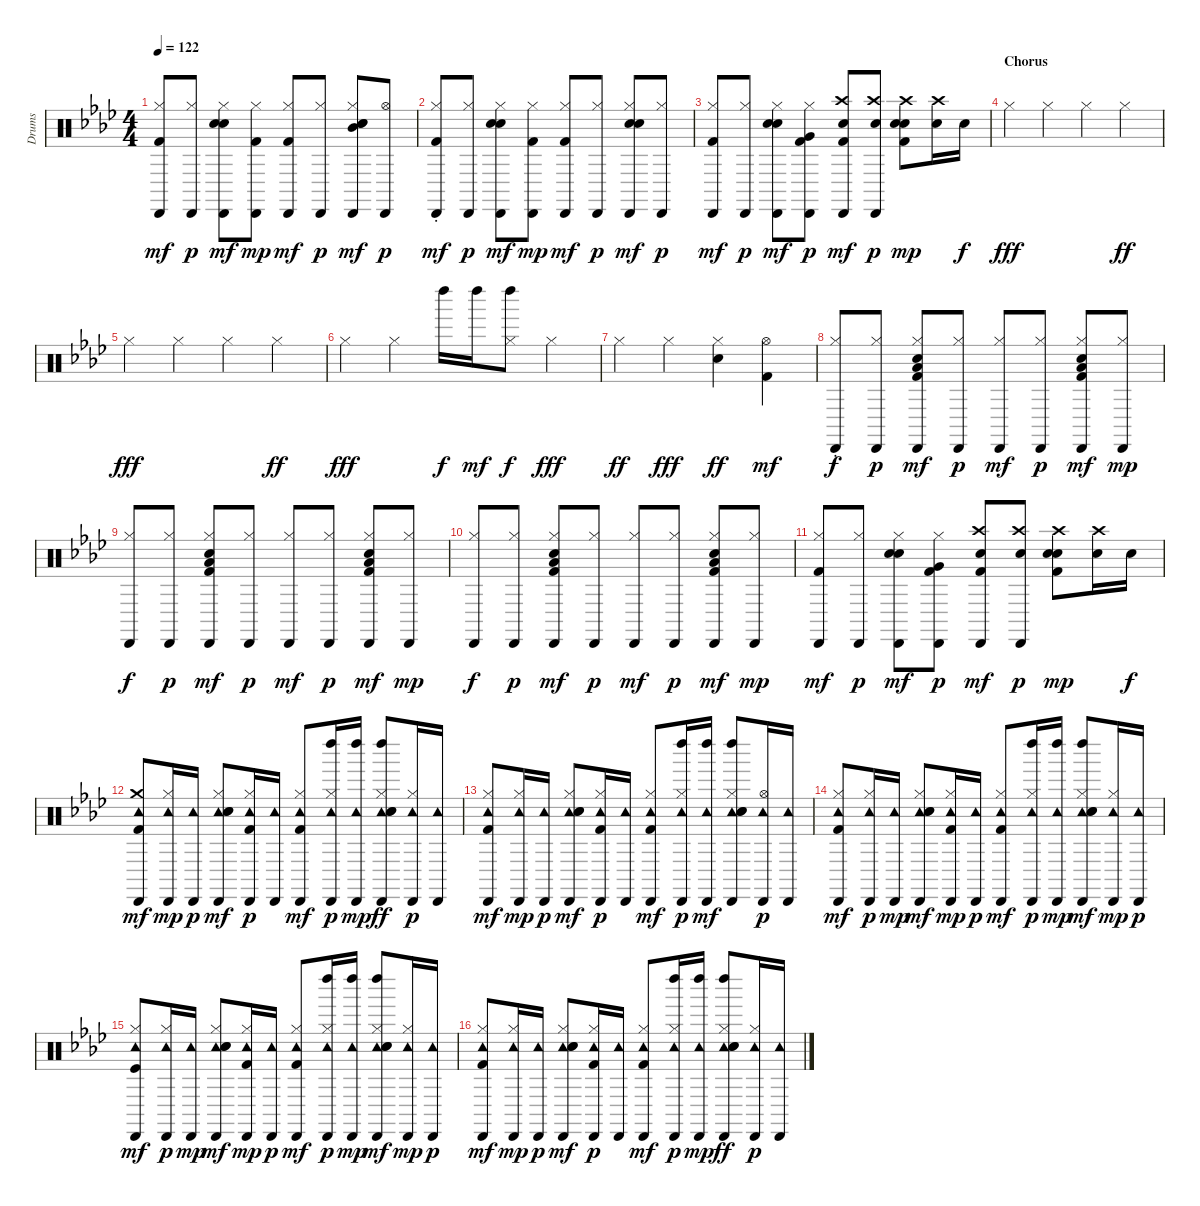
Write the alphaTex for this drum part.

\track ("Drums" "Drums") {instrument percussion}
\staff {score}
\articulation defaults
\ts (4 4)
\tempo 122
\clef neutral
\ks ab
("Hi-Hat (closed)" "Cabasa (hit)" "Kick (hit) 2").8{dy mf} ("Hi-Hat (closed)" "Cabasa (hit)").8{dy p} ("Hi-Hat (closed)" "Cabasa (hit)" "Hand Clap (hit)" "Electric Snare (hit)").8{dy mf} ("Hi-Hat (closed)" "Cabasa (hit)" "Kick (hit) 2").8{dy mp} ("Hi-Hat (closed)" "Cabasa (hit)" "Kick (hit) 2").8{dy mf} ("Hi-Hat (closed)" "Cabasa (hit)").8{dy p} ("Hi-Hat (closed)" "Cabasa (hit)" "Hand Clap (hit)" "Mid Tom (hit)" "Electric Snare (hit)").8{dy mf} ("Hi-Hat (open)" "Cabasa (hit)").8{dy p} |
("Hi-Hat (closed)"{st} "Cabasa (hit)" "Kick (hit) 2").8{dy mf} ("Hi-Hat (closed)" "Cabasa (hit)").8{dy p} ("Hi-Hat (closed)" "Cabasa (hit)" "Hand Clap (hit)" "Electric Snare (hit)").8{dy mf} ("Hi-Hat (closed)" "Cabasa (hit)" "Kick (hit) 2").8{dy mp} ("Hi-Hat (closed)" "Cabasa (hit)" "Kick (hit) 2").8{dy mf} ("Hi-Hat (closed)" "Cabasa (hit)").8{dy p} ("Hi-Hat (closed)" "Cabasa (hit)" "Hand Clap (hit)" "Electric Snare (hit)").8{dy mf} ("Hi-Hat (closed)" "Cabasa (hit)").8{dy p} |
("Hi-Hat (closed)" "Cabasa (hit)" "Kick (hit) 2").8{dy mf} ("Hi-Hat (closed)" "Cabasa (hit)").8{dy p} ("Hi-Hat (closed)" "Cabasa (hit)" "Hand Clap (hit)" "Electric Snare (hit)").8{dy mf} ("Hi-Hat (closed)" "Cabasa (hit)" "Very Low Tom (hit)" "Kick (hit) 2").8{dy p} ("Crash high (hit)" "Cabasa (hit)" "Electric Snare (hit)" "Kick (hit) 2").8{dy mf} ("Crash high (hit)" "Cabasa (hit)" "Electric Snare (hit)").8{dy p} ("Crash high (hit)" "Hand Clap (hit)" "Electric Snare (hit)" "Kick (hit) 2").8{dy mp} ("Crash high (hit)" "Electric Snare (hit)").16 "Electric Snare (hit)".16{dy f} |
\section ("" "Chorus")
"Hi-Hat (closed)".4{dy fff} "Hi-Hat (closed)".4 "Hi-Hat (closed)".4 "Hi-Hat (closed)".4{dy ff} |
"Hi-Hat (closed)".4{dy fff} "Hi-Hat (closed)".4 "Hi-Hat (closed)".4 "Hi-Hat (closed)".4{dy ff} |
"Hi-Hat (closed)".4{dy fff} "Hi-Hat (closed)".4 "Left Maraca (hit)".16{dy f} "Left Maraca (hit)".16{dy mf} ("Hi-Hat (closed)" "Left Maraca (hit)").8{dy f} "Hi-Hat (closed)".4{dy fff} |
"Hi-Hat (closed)".4{dy ff} "Hi-Hat (closed)".4{dy fff} ("Hi-Hat (closed)" "Electric Snare (hit)").4{dy ff} ("Hi-Hat (open)" "Kick (hit) 2").4{dy mf} |
("Hi-Hat (closed)"{st} "Cabasa (hit)").8{dy f} ("Hi-Hat (closed)" "Cabasa (hit)").8{dy p} ("Hi-Hat (closed)" "Cabasa (hit)" "Low Tom (hit)" "Electric Snare (hit)" "Kick (hit) 2").8{dy mf} ("Hi-Hat (closed)" "Cabasa (hit)").8{dy p} ("Hi-Hat (closed)" "Cabasa (hit)").8{dy mf} ("Hi-Hat (closed)" "Cabasa (hit)").8{dy p} ("Hi-Hat (closed)" "Cabasa (hit)" "Low Tom (hit)" "Electric Snare (hit)" "Kick (hit) 2").8{dy mf} ("Hi-Hat (closed)" "Cabasa (hit)").8{dy mp} |
("Hi-Hat (closed)" "Cabasa (hit)").8{dy f} ("Hi-Hat (closed)" "Cabasa (hit)").8{dy p} ("Hi-Hat (closed)" "Cabasa (hit)" "Low Tom (hit)" "Electric Snare (hit)" "Kick (hit) 2").8{dy mf} ("Hi-Hat (closed)" "Cabasa (hit)").8{dy p} ("Hi-Hat (closed)" "Cabasa (hit)").8{dy mf} ("Hi-Hat (closed)" "Cabasa (hit)").8{dy p} ("Hi-Hat (closed)" "Cabasa (hit)" "Low Tom (hit)" "Electric Snare (hit)" "Kick (hit) 2").8{dy mf} ("Hi-Hat (closed)" "Cabasa (hit)").8{dy mp} |
("Hi-Hat (closed)" "Cabasa (hit)").8{dy f} ("Hi-Hat (closed)" "Cabasa (hit)").8{dy p} ("Hi-Hat (closed)" "Cabasa (hit)" "Low Tom (hit)" "Electric Snare (hit)" "Kick (hit) 2").8{dy mf} ("Hi-Hat (closed)" "Cabasa (hit)").8{dy p} ("Hi-Hat (closed)" "Cabasa (hit)").8{dy mf} ("Hi-Hat (closed)" "Cabasa (hit)").8{dy p} ("Hi-Hat (closed)" "Cabasa (hit)" "Low Tom (hit)" "Electric Snare (hit)" "Kick (hit) 2").8{dy mf} ("Hi-Hat (closed)" "Cabasa (hit)").8{dy mp} |
("Hi-Hat (closed)" "Cabasa (hit)" "Kick (hit) 2").8{dy mf} ("Hi-Hat (closed)" "Cabasa (hit)").8{dy p} ("Hi-Hat (closed)" "Cabasa (hit)" "Hand Clap (hit)" "Electric Snare (hit)").8{dy mf} ("Hi-Hat (closed)" "Cabasa (hit)" "Very Low Tom (hit)" "Kick (hit) 2").8{dy p} ("Crash high (hit)" "Cabasa (hit)" "Electric Snare (hit)" "Kick (hit) 2").8{dy mf} ("Crash high (hit)" "Cabasa (hit)" "Electric Snare (hit)").8{dy p} ("Crash high (hit)" "Hand Clap (hit)" "Electric Snare (hit)" "Kick (hit) 2").8{dy mp} ("Crash high (hit)" "Electric Snare (hit)").16 "Electric Snare (hit)".16{dy f} |
("Crash medium (hit)" "Cabasa (hit)" "Tambourine (hit)" "Kick (hit) 2").8{dy mf} ("Hi-Hat (closed)" "Cabasa (hit)" "Tambourine (hit)").16{dy mp} ("Cabasa (hit)" "Tambourine (hit)").16{dy p} ("Hi-Hat (closed)" "Cabasa (hit)" "Tambourine (hit)" "Hand Clap (hit)" "Electric Snare (hit)").8{dy mf} ("Hi-Hat (closed)" "Cabasa (hit)" "Tambourine (hit)" "Kick (hit) 2").16{dy p} ("Cabasa (hit)" "Tambourine (hit)").16 ("Hi-Hat (closed)" "Cabasa (hit)" "Tambourine (hit)" "Kick (hit) 2").8{dy mf} ("Hi-Hat (closed)" "Cabasa (hit)" "Tambourine (hit)" "Left Maraca (hit)").16{dy p} ("Cabasa (hit)" "Tambourine (hit)" "Left Maraca (hit)").16{dy mp} ("Hi-Hat (closed)" "Cabasa (hit)" "Tambourine (hit)" "Left Maraca (hit)" "Electric Snare (hit)" "Hand Clap (hit)").8{dy ff} ("Hi-Hat (closed)" "Cabasa (hit)" "Tambourine (hit)").16{dy p} ("Cabasa (hit)" "Tambourine (hit)").16 |
("Hi-Hat (closed)" "Cabasa (hit)" "Tambourine (hit)" "Kick (hit) 2").8{dy mf} ("Hi-Hat (closed)" "Cabasa (hit)" "Tambourine (hit)").16{dy mp} ("Cabasa (hit)" "Tambourine (hit)").16{dy p} ("Hi-Hat (closed)" "Cabasa (hit)" "Tambourine (hit)" "Hand Clap (hit)" "Electric Snare (hit)").8{dy mf} ("Hi-Hat (closed)" "Cabasa (hit)" "Tambourine (hit)" "Kick (hit) 2").16{dy p} ("Cabasa (hit)" "Tambourine (hit)").16 ("Hi-Hat (closed)" "Cabasa (hit)" "Tambourine (hit)" "Kick (hit) 2").8{dy mf} ("Hi-Hat (closed)" "Cabasa (hit)" "Tambourine (hit)" "Left Maraca (hit)").16{dy p} ("Cabasa (hit)" "Tambourine (hit)" "Left Maraca (hit)").16{dy mf} ("Hi-Hat (closed)" "Cabasa (hit)" "Tambourine (hit)" "Left Maraca (hit)" "Electric Snare (hit)" "Hand Clap (hit)").8 ("Hi-Hat (open)" "Cabasa (hit)" "Tambourine (hit)").16{dy p} ("Cabasa (hit)" "Tambourine (hit)").16 |
("Hi-Hat (closed)" "Cabasa (hit)" "Tambourine (hit)" "Kick (hit) 2").8{dy mf} ("Hi-Hat (closed)" "Cabasa (hit)" "Tambourine (hit)").16{dy p} ("Cabasa (hit)" "Tambourine (hit)").16{dy mp} ("Hi-Hat (closed)" "Cabasa (hit)" "Tambourine (hit)" "Electric Snare (hit)" "Hand Clap (hit)").8{dy mf} ("Hi-Hat (closed)" "Cabasa (hit)" "Tambourine (hit)" "Kick (hit) 2").16{dy mp} ("Cabasa (hit)" "Tambourine (hit)").16{dy p} ("Hi-Hat (closed)" "Cabasa (hit)" "Tambourine (hit)" "Kick (hit) 2").8{dy mf} ("Hi-Hat (closed)" "Cabasa (hit)" "Tambourine (hit)" "Left Maraca (hit)").16{dy p} ("Cabasa (hit)" "Tambourine (hit)" "Left Maraca (hit)").16{dy mp} ("Hi-Hat (closed)" "Cabasa (hit)" "Tambourine (hit)" "Left Maraca (hit)" "Electric Snare (hit)" "Hand Clap (hit)").8{dy mf} ("Hi-Hat (closed)" "Cabasa (hit)" "Tambourine (hit)").16{dy mp} ("Cabasa (hit)" "Tambourine (hit)").16{dy p} |
("Hi-Hat (closed)" "Cabasa (hit)" "Tambourine (hit)" "Kick (hit)").8{dy mf} ("Hi-Hat (closed)" "Cabasa (hit)" "Tambourine (hit)").16{dy p} ("Cabasa (hit)" "Tambourine (hit)").16{dy mp} ("Hi-Hat (closed)" "Cabasa (hit)" "Tambourine (hit)" "Electric Snare (hit)" "Hand Clap (hit)").8{dy mf} ("Hi-Hat (closed)" "Cabasa (hit)" "Tambourine (hit)" "Kick (hit) 2").16{dy mp} ("Cabasa (hit)" "Tambourine (hit)").16{dy p} ("Hi-Hat (closed)" "Cabasa (hit)" "Tambourine (hit)" "Kick (hit) 2").8{dy mf} ("Hi-Hat (closed)" "Cabasa (hit)" "Tambourine (hit)" "Left Maraca (hit)").16{dy p} ("Cabasa (hit)" "Tambourine (hit)" "Left Maraca (hit)").16{dy mp} ("Hi-Hat (closed)" "Cabasa (hit)" "Tambourine (hit)" "Left Maraca (hit)" "Electric Snare (hit)" "Hand Clap (hit)").8{dy mf} ("Hi-Hat (closed)" "Cabasa (hit)" "Tambourine (hit)").16{dy mp} ("Cabasa (hit)" "Tambourine (hit)").16{dy p} |
("Hi-Hat (closed)" "Cabasa (hit)" "Tambourine (hit)" "Kick (hit) 2").8{dy mf} ("Hi-Hat (closed)" "Cabasa (hit)" "Tambourine (hit)").16{dy mp} ("Cabasa (hit)" "Tambourine (hit)").16{dy p} ("Hi-Hat (closed)" "Cabasa (hit)" "Tambourine (hit)" "Hand Clap (hit)" "Electric Snare (hit)").8{dy mf} ("Hi-Hat (closed)" "Cabasa (hit)" "Tambourine (hit)" "Kick (hit) 2").16{dy p} ("Cabasa (hit)" "Tambourine (hit)").16 ("Hi-Hat (closed)" "Cabasa (hit)" "Tambourine (hit)" "Kick (hit) 2").8{dy mf} ("Hi-Hat (closed)" "Cabasa (hit)" "Tambourine (hit)" "Left Maraca (hit)").16{dy p} ("Cabasa (hit)" "Tambourine (hit)" "Left Maraca (hit)").16{dy mp} ("Hi-Hat (closed)" "Cabasa (hit)" "Tambourine (hit)" "Left Maraca (hit)" "Electric Snare (hit)" "Hand Clap (hit)").8{dy ff} ("Hi-Hat (closed)" "Cabasa (hit)" "Tambourine (hit)").16{dy p} ("Cabasa (hit)" "Tambourine (hit)").16
